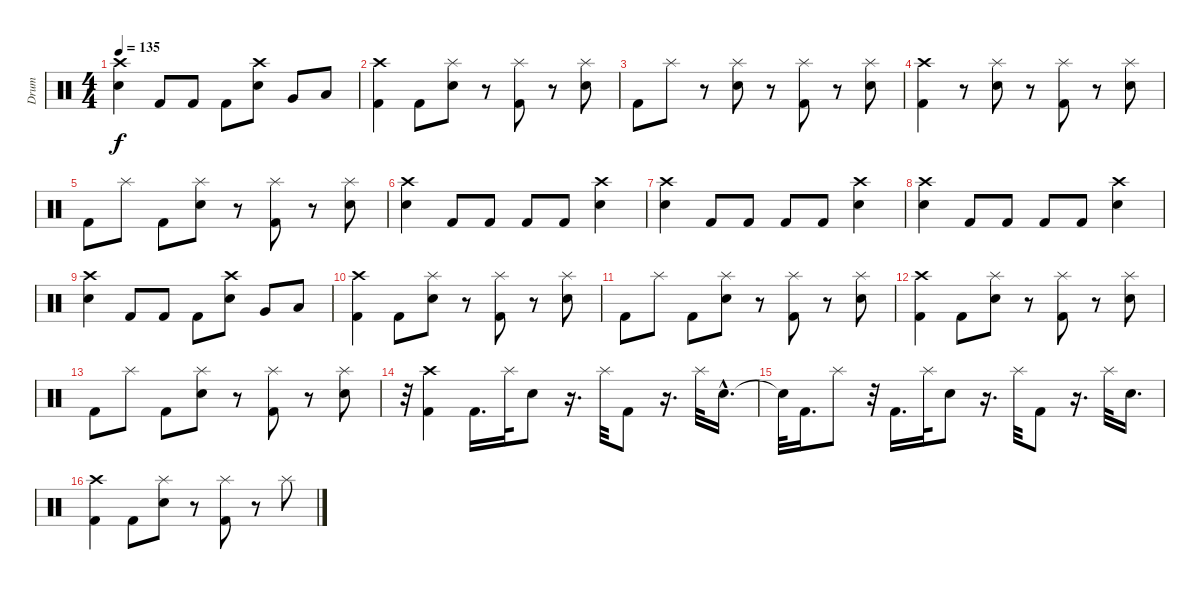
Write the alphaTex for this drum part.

\track ("Drum" "Drum") {instrument percussion}
\staff {score}
\articulation defaults
\ts (4 4)
\tempo 135
\clef neutral
\ks c
("Crash high (hit)" "Electric Snare (hit)").4{dy f} "Kick (hit) 2".8 "Kick (hit) 2".8 "Kick (hit) 2".8 ("Crash high (hit)" "Electric Snare (hit)").8 "Very Low Tom (hit)".8 "Low Floor Tom (hit)".8 |
("Crash high (hit)" "Kick (hit) 2").4 "Kick (hit) 2".8 ("Splash (hit)" "Electric Snare (hit)").8 r.8 ("Splash (hit)" "Kick (hit) 2").8 r.8 ("Splash (hit)" "Electric Snare (hit)").8 |
"Kick (hit) 2".8 "Splash (hit)".8 r.8 ("Splash (hit)" "Electric Snare (hit)").8 r.8 ("Splash (hit)" "Kick (hit) 2").8 r.8 ("Splash (hit)" "Electric Snare (hit)").8 |
("Crash high (hit)" "Kick (hit) 2").4 r.8 ("Splash (hit)" "Electric Snare (hit)").8 r.8 ("Splash (hit)" "Kick (hit) 2").8 r.8 ("Splash (hit)" "Electric Snare (hit)").8 |
"Kick (hit) 2".8 "Splash (hit)".8 "Kick (hit) 2".8 ("Splash (hit)" "Electric Snare (hit)").8 r.8 ("Splash (hit)" "Kick (hit) 2").8 r.8 ("Splash (hit)" "Electric Snare (hit)").8 |
("Crash high (hit)" "Electric Snare (hit)").4 "Kick (hit) 2".8 "Kick (hit) 2".8 "Kick (hit) 2".8 "Kick (hit) 2".8 ("Crash high (hit)" "Electric Snare (hit)").4 |
("Crash high (hit)" "Electric Snare (hit)").4 "Kick (hit) 2".8 "Kick (hit) 2".8 "Kick (hit) 2".8 "Kick (hit) 2".8 ("Crash high (hit)" "Electric Snare (hit)").4 |
("Crash high (hit)" "Electric Snare (hit)").4 "Kick (hit) 2".8 "Kick (hit) 2".8 "Kick (hit) 2".8 "Kick (hit) 2".8 ("Crash high (hit)" "Electric Snare (hit)").4 |
("Crash high (hit)" "Electric Snare (hit)").4 "Kick (hit) 2".8 "Kick (hit) 2".8 "Kick (hit) 2".8 ("Crash high (hit)" "Electric Snare (hit)").8 "Very Low Tom (hit)".8 "Low Floor Tom (hit)".8 |
("Crash high (hit)" "Kick (hit) 2").4 "Kick (hit) 2".8 ("Splash (hit)" "Electric Snare (hit)").8 r.8 ("Splash (hit)" "Kick (hit) 2").8 r.8 ("Splash (hit)" "Electric Snare (hit)").8 |
"Kick (hit) 2".8 "Splash (hit)".8 "Kick (hit) 2".8 ("Splash (hit)" "Electric Snare (hit)").8 r.8 ("Splash (hit)" "Kick (hit) 2").8 r.8 ("Splash (hit)" "Electric Snare (hit)").8 |
("Crash high (hit)" "Kick (hit) 2").4 "Kick (hit) 2".8 ("Splash (hit)" "Electric Snare (hit)").8 r.8 ("Splash (hit)" "Kick (hit) 2").8 r.8 ("Splash (hit)" "Electric Snare (hit)").8 |
"Kick (hit) 2".8 "Splash (hit)".8 "Kick (hit) 2".8 ("Splash (hit)" "Electric Snare (hit)").8 r.8 ("Splash (hit)" "Kick (hit) 2").8 r.8 ("Splash (hit)" "Electric Snare (hit)").8 |
r.32 ("Crash high (hit)" "Kick (hit) 2").4 "Kick (hit) 2".16{d} "Splash (hit)".32 "Electric Snare (hit)".8 r.16{d} "Splash (hit)".32 "Kick (hit) 2".8 r.16{d} "Splash (hit)".32 "Electric Snare (hit)"{hac}.16{d} |
"Snare (hit)"{t}.32 "Kick (hit) 2".16{d} "Splash (hit)".8 r.32 "Kick (hit) 2".16{d} "Splash (hit)".32 "Electric Snare (hit)".8 r.16{d} "Splash (hit)".32 "Kick (hit) 2".8 r.16{d} "Splash (hit)".32 "Electric Snare (hit)".16{d} |
("Crash high (hit)" "Kick (hit) 2").4 "Kick (hit) 2".8 ("Splash (hit)" "Electric Snare (hit)").8 r.8 ("Splash (hit)" "Kick (hit) 2").8 r.8 "Splash (hit)".8
